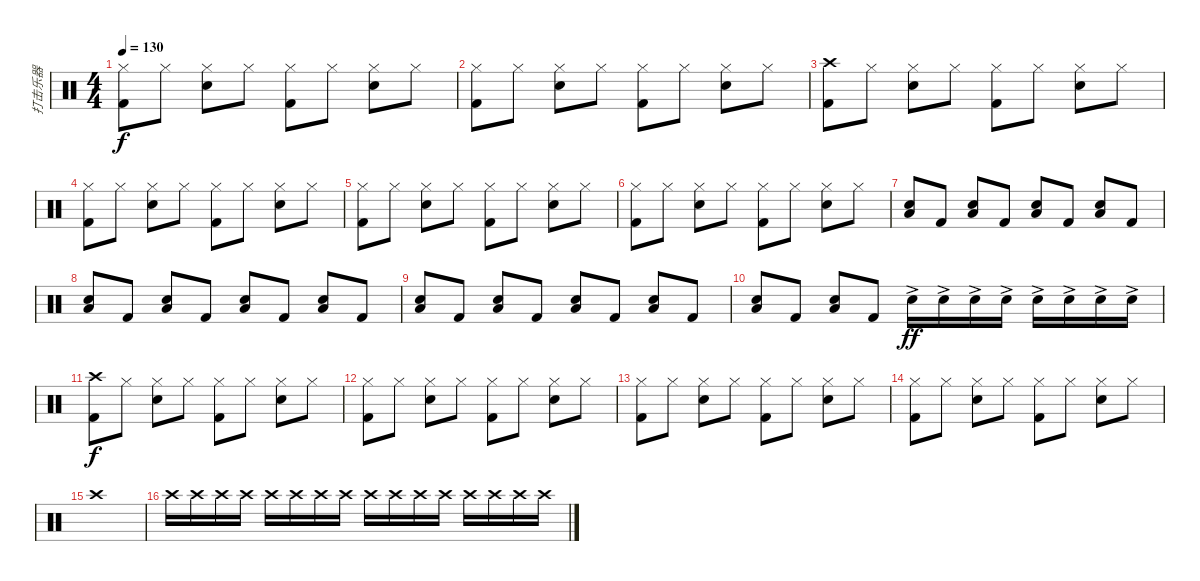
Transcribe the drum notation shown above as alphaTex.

\track ("打击乐器" "打击乐器") {instrument percussion}
\staff {score}
\articulation defaults
\ts (4 4)
\tempo 130
\clef neutral
\ks c
("Kick (hit) 2" "Hi-Hat (closed)").8{dy f} "Hi-Hat (closed)".8 ("Snare (hit) 2" "Hi-Hat (closed)").8 "Hi-Hat (closed)".8 ("Kick (hit) 2" "Hi-Hat (closed)").8 "Hi-Hat (closed)".8 ("Snare (hit) 2" "Hi-Hat (closed)").8 "Hi-Hat (closed)".8 |
("Kick (hit) 2" "Hi-Hat (closed)").8 "Hi-Hat (closed)".8 ("Snare (hit) 2" "Hi-Hat (closed)").8 "Hi-Hat (closed)".8 ("Kick (hit) 2" "Hi-Hat (closed)").8 "Hi-Hat (closed)".8 ("Snare (hit) 2" "Hi-Hat (closed)").8 "Hi-Hat (closed)".8 |
("Kick (hit) 2" "Crash high (hit)").8 "Hi-Hat (closed)".8 ("Snare (hit) 2" "Hi-Hat (closed)").8 "Hi-Hat (closed)".8 ("Kick (hit) 2" "Hi-Hat (closed)").8 "Hi-Hat (closed)".8 ("Snare (hit) 2" "Hi-Hat (closed)").8 "Hi-Hat (closed)".8 |
("Kick (hit) 2" "Hi-Hat (closed)").8 "Hi-Hat (closed)".8 ("Snare (hit) 2" "Hi-Hat (closed)").8 "Hi-Hat (closed)".8 ("Kick (hit) 2" "Hi-Hat (closed)").8 "Hi-Hat (closed)".8 ("Snare (hit) 2" "Hi-Hat (closed)").8 "Hi-Hat (closed)".8 |
("Kick (hit) 2" "Hi-Hat (closed)").8 "Hi-Hat (closed)".8 ("Snare (hit) 2" "Hi-Hat (closed)").8 "Hi-Hat (closed)".8 ("Kick (hit) 2" "Hi-Hat (closed)").8 "Hi-Hat (closed)".8 ("Snare (hit) 2" "Hi-Hat (closed)").8 "Hi-Hat (closed)".8 |
("Kick (hit) 2" "Hi-Hat (closed)").8 "Hi-Hat (closed)".8 ("Snare (hit) 2" "Hi-Hat (closed)").8 "Hi-Hat (closed)".8 ("Kick (hit) 2" "Hi-Hat (closed)").8 "Hi-Hat (closed)".8 ("Snare (hit) 2" "Hi-Hat (closed)").8 "Hi-Hat (closed)".8 |
("Snare (hit) 2" "Low Tom (hit)").8 "Kick (hit) 2".8 ("Snare (hit) 2" "Low Tom (hit)").8 "Kick (hit) 2".8 ("Snare (hit) 2" "Low Tom (hit)").8 "Kick (hit) 2".8 ("Snare (hit) 2" "Low Tom (hit)").8 "Kick (hit) 2".8 |
("Snare (hit) 2" "Low Tom (hit)").8 "Kick (hit) 2".8 ("Snare (hit) 2" "Low Tom (hit)").8 "Kick (hit) 2".8 ("Snare (hit) 2" "Low Tom (hit)").8 "Kick (hit) 2".8 ("Snare (hit) 2" "Low Tom (hit)").8 "Kick (hit) 2".8 |
("Snare (hit) 2" "Low Tom (hit)").8 "Kick (hit) 2".8 ("Snare (hit) 2" "Low Tom (hit)").8 "Kick (hit) 2".8 ("Snare (hit) 2" "Low Tom (hit)").8 "Kick (hit) 2".8 ("Snare (hit) 2" "Low Tom (hit)").8 "Kick (hit) 2".8 |
("Snare (hit) 2" "Low Tom (hit)").8 "Kick (hit) 2".8 ("Snare (hit) 2" "Low Tom (hit)").8 "Kick (hit) 2".8 "Snare (hit) 2"{ac}.16{dy ff} "Snare (hit) 2"{ac}.16 "Snare (hit) 2"{ac}.16 "Snare (hit) 2"{ac}.16 "Snare (hit) 2"{ac}.16 "Snare (hit) 2"{ac}.16 "Snare (hit) 2"{ac}.16 "Snare (hit) 2"{ac}.16 |
("Kick (hit) 2" "Crash high (hit)").8{dy f} "Hi-Hat (closed)".8 ("Snare (hit) 2" "Hi-Hat (closed)").8 "Hi-Hat (closed)".8 ("Kick (hit) 2" "Hi-Hat (closed)").8 "Hi-Hat (closed)".8 ("Snare (hit) 2" "Hi-Hat (closed)").8 "Hi-Hat (closed)".8 |
("Kick (hit) 2" "Hi-Hat (closed)").8 "Hi-Hat (closed)".8 ("Snare (hit) 2" "Hi-Hat (closed)").8 "Hi-Hat (closed)".8 ("Kick (hit) 2" "Hi-Hat (closed)").8 "Hi-Hat (closed)".8 ("Snare (hit) 2" "Hi-Hat (closed)").8 "Hi-Hat (closed)".8 |
("Kick (hit) 2" "Hi-Hat (closed)").8 "Hi-Hat (closed)".8 ("Snare (hit) 2" "Hi-Hat (closed)").8 "Hi-Hat (closed)".8 ("Kick (hit) 2" "Hi-Hat (closed)").8 "Hi-Hat (closed)".8 ("Snare (hit) 2" "Hi-Hat (closed)").8 "Hi-Hat (closed)".8 |
("Kick (hit) 2" "Hi-Hat (closed)").8 "Hi-Hat (closed)".8 ("Snare (hit) 2" "Hi-Hat (closed)").8 "Hi-Hat (closed)".8 ("Kick (hit) 2" "Hi-Hat (closed)").8 "Hi-Hat (closed)".8 ("Snare (hit) 2" "Hi-Hat (closed)").8 "Hi-Hat (closed)".8 |
"Crash high (hit)".1 |
"Crash high (hit)".16 "Crash high (hit)".16 "Crash high (hit)".16 "Crash high (hit)".16 "Crash high (hit)".16 "Crash high (hit)".16 "Crash high (hit)".16 "Crash high (hit)".16 "Crash high (hit)".16 "Crash high (hit)".16 "Crash high (hit)".16 "Crash high (hit)".16 "Crash high (hit)".16 "Crash high (hit)".16 "Crash high (hit)".16 "Crash high (hit)".16
